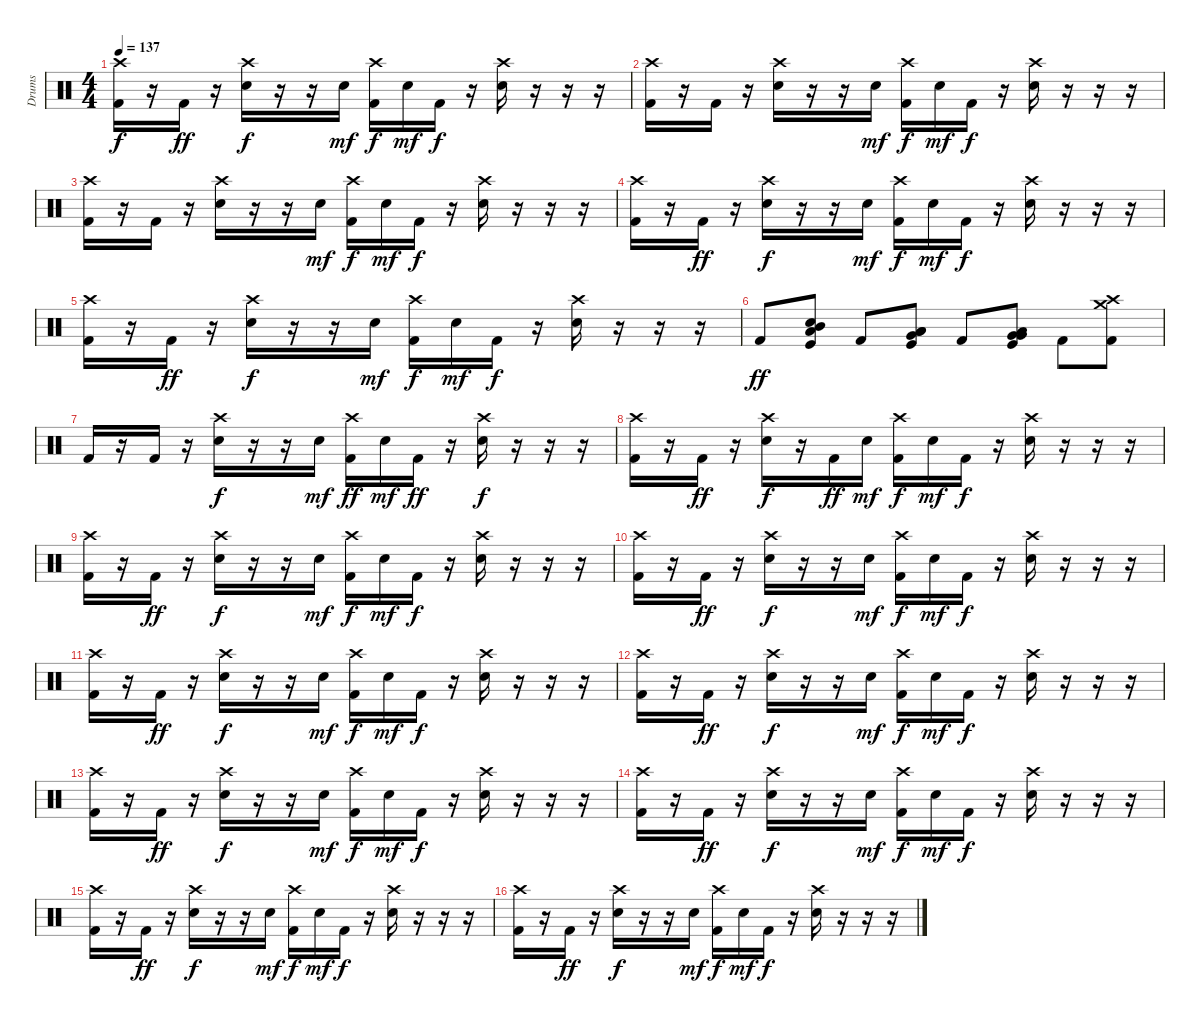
\track ("Drums" "Drums") {instrument percussion}
\staff {score}
\articulation defaults
\ts (4 4)
\tempo 137
\clef neutral
\ks c
("Crash high (hit)" "Kick (hit) 2").16{dy f} r.16 "Kick (hit) 2".16{dy ff} r.16 ("Crash high (hit)" "Electric Snare (hit)").16{dy f} r.16 r.16 "Electric Snare (hit)".16{dy mf} ("Crash high (hit)" "Kick (hit) 2").16{dy f} "Electric Snare (hit)".16{dy mf} "Kick (hit) 2".16{dy f} r.16 ("Crash high (hit)" "Electric Snare (hit)").16 r.16 r.16 r.16 |
("Crash high (hit)" "Kick (hit) 2").16 r.16 "Kick (hit) 2".16 r.16 ("Crash high (hit)" "Electric Snare (hit)").16 r.16 r.16 "Electric Snare (hit)".16{dy mf} ("Crash high (hit)" "Kick (hit) 2").16{dy f} "Electric Snare (hit)".16{dy mf} "Kick (hit) 2".16{dy f} r.16 ("Crash high (hit)" "Electric Snare (hit)").16 r.16 r.16 r.16 |
("Crash high (hit)" "Kick (hit) 2").16 r.16 "Kick (hit) 2".16 r.16 ("Crash high (hit)" "Electric Snare (hit)").16 r.16 r.16 "Electric Snare (hit)".16{dy mf} ("Crash high (hit)" "Kick (hit) 2").16{dy f} "Electric Snare (hit)".16{dy mf} "Kick (hit) 2".16{dy f} r.16 ("Crash high (hit)" "Electric Snare (hit)").16 r.16 r.16 r.16 |
("Crash high (hit)" "Kick (hit) 2").16 r.16 "Kick (hit) 2".16{dy ff} r.16 ("Crash high (hit)" "Electric Snare (hit)").16{dy f} r.16 r.16 "Electric Snare (hit)".16{dy mf} ("Crash high (hit)" "Kick (hit) 2").16{dy f} "Electric Snare (hit)".16{dy mf} "Kick (hit) 2".16{dy f} r.16 ("Crash high (hit)" "Electric Snare (hit)").16 r.16 r.16 r.16 |
("Crash high (hit)" "Kick (hit) 2").16 r.16 "Kick (hit) 2".16{dy ff} r.16 ("Crash high (hit)" "Electric Snare (hit)").16{dy f} r.16 r.16 "Electric Snare (hit)".16{dy mf} ("Crash high (hit)" "Kick (hit) 2").16{dy f} "Electric Snare (hit)".16{dy mf} "Kick (hit) 2".16{dy f} r.16 ("Crash high (hit)" "Electric Snare (hit)").16 r.16 r.16 r.16 |
"Kick (hit) 2".8{dy ff} ("Snare (hit) 2" "Mid Tom (hit)" "Low Tom (hit)" "Kick (hit)").8 "Kick (hit) 2".8 ("Low Tom (hit)" "Low Tom (hit)" "Very Low Tom (hit)" "Kick (hit)").8 "Kick (hit) 2".8 ("Low Tom (hit)" "Very Low Tom (hit)" "Very Low Tom (hit)" "Kick (hit)").8 "Kick (hit) 2".8 ("Crash high (hit)" "Crash medium (hit)" "Kick (hit) 2").8 |
"Kick (hit) 2".16 r.16 "Kick (hit) 2".16 r.16 ("Crash high (hit)" "Electric Snare (hit)").16{dy f} r.16 r.16 "Electric Snare (hit)".16{dy mf} ("Crash high (hit)" "Kick (hit) 2").16{dy ff} "Electric Snare (hit)".16{dy mf} "Kick (hit) 2".16{dy ff} r.16 ("Crash high (hit)" "Electric Snare (hit)").16{dy f} r.16 r.16 r.16 |
("Crash high (hit)" "Kick (hit) 2").16 r.16 "Kick (hit) 2".16{dy ff} r.16 ("Crash high (hit)" "Electric Snare (hit)").16{dy f} r.16 "Kick (hit) 2".16{dy ff} "Electric Snare (hit)".16{dy mf} ("Crash high (hit)" "Kick (hit) 2").16{dy f} "Electric Snare (hit)".16{dy mf} "Kick (hit) 2".16{dy f} r.16 ("Crash high (hit)" "Electric Snare (hit)").16 r.16 r.16 r.16 |
("Crash high (hit)" "Kick (hit) 2").16 r.16 "Kick (hit) 2".16{dy ff} r.16 ("Crash high (hit)" "Electric Snare (hit)").16{dy f} r.16 r.16 "Electric Snare (hit)".16{dy mf} ("Crash high (hit)" "Kick (hit) 2").16{dy f} "Electric Snare (hit)".16{dy mf} "Kick (hit) 2".16{dy f} r.16 ("Crash high (hit)" "Electric Snare (hit)").16 r.16 r.16 r.16 |
("Crash high (hit)" "Kick (hit) 2").16 r.16 "Kick (hit) 2".16{dy ff} r.16 ("Crash high (hit)" "Electric Snare (hit)").16{dy f} r.16 r.16 "Electric Snare (hit)".16{dy mf} ("Crash high (hit)" "Kick (hit) 2").16{dy f} "Electric Snare (hit)".16{dy mf} "Kick (hit) 2".16{dy f} r.16 ("Crash high (hit)" "Electric Snare (hit)").16 r.16 r.16 r.16 |
("Crash high (hit)" "Kick (hit) 2").16 r.16 "Kick (hit) 2".16{dy ff} r.16 ("Crash high (hit)" "Electric Snare (hit)").16{dy f} r.16 r.16 "Electric Snare (hit)".16{dy mf} ("Crash high (hit)" "Kick (hit) 2").16{dy f} "Electric Snare (hit)".16{dy mf} "Kick (hit) 2".16{dy f} r.16 ("Crash high (hit)" "Electric Snare (hit)").16 r.16 r.16 r.16 |
("Crash high (hit)" "Kick (hit) 2").16 r.16 "Kick (hit) 2".16{dy ff} r.16 ("Crash high (hit)" "Electric Snare (hit)").16{dy f} r.16 r.16 "Electric Snare (hit)".16{dy mf} ("Crash high (hit)" "Kick (hit) 2").16{dy f} "Electric Snare (hit)".16{dy mf} "Kick (hit) 2".16{dy f} r.16 ("Crash high (hit)" "Electric Snare (hit)").16 r.16 r.16 r.16 |
("Crash high (hit)" "Kick (hit) 2").16 r.16 "Kick (hit) 2".16{dy ff} r.16 ("Crash high (hit)" "Electric Snare (hit)").16{dy f} r.16 r.16 "Electric Snare (hit)".16{dy mf} ("Crash high (hit)" "Kick (hit) 2").16{dy f} "Electric Snare (hit)".16{dy mf} "Kick (hit) 2".16{dy f} r.16 ("Crash high (hit)" "Electric Snare (hit)").16 r.16 r.16 r.16 |
("Crash high (hit)" "Kick (hit) 2").16 r.16 "Kick (hit) 2".16{dy ff} r.16 ("Crash high (hit)" "Electric Snare (hit)").16{dy f} r.16 r.16 "Electric Snare (hit)".16{dy mf} ("Crash high (hit)" "Kick (hit) 2").16{dy f} "Electric Snare (hit)".16{dy mf} "Kick (hit) 2".16{dy f} r.16 ("Crash high (hit)" "Electric Snare (hit)").16 r.16 r.16 r.16 |
("Crash high (hit)" "Kick (hit) 2").16 r.16 "Kick (hit) 2".16{dy ff} r.16 ("Crash high (hit)" "Electric Snare (hit)").16{dy f} r.16 r.16 "Electric Snare (hit)".16{dy mf} ("Crash high (hit)" "Kick (hit) 2").16{dy f} "Electric Snare (hit)".16{dy mf} "Kick (hit) 2".16{dy f} r.16 ("Crash high (hit)" "Electric Snare (hit)").16 r.16 r.16 r.16 |
("Crash high (hit)" "Kick (hit) 2").16 r.16 "Kick (hit) 2".16{dy ff} r.16 ("Crash high (hit)" "Electric Snare (hit)").16{dy f} r.16 r.16 "Electric Snare (hit)".16{dy mf} ("Crash high (hit)" "Kick (hit) 2").16{dy f} "Electric Snare (hit)".16{dy mf} "Kick (hit) 2".16{dy f} r.16 ("Crash high (hit)" "Electric Snare (hit)").16 r.16 r.16 r.16
